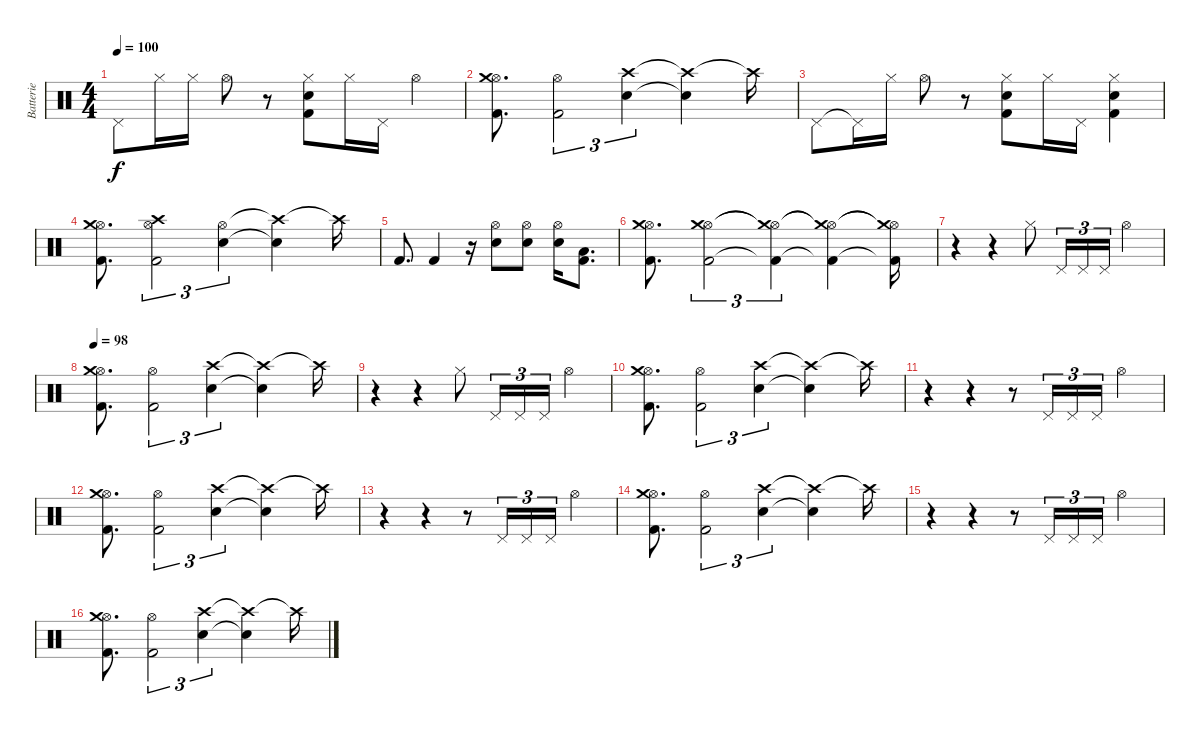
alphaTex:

\track ("Batterie" "Batterie") {instrument percussion}
\staff {score}
\articulation defaults
\ts (4 4)
\tempo 100
\clef neutral
\ks c "Pedal Hi-Hat (hit)".8{dy f} "Hi-Hat (closed)".16 "Hi-Hat (closed)".16 "Hi-Hat (open)".8
r.8 ("Hi-Hat (closed)" "Electric Snare (hit)" "Kick (hit) 2").8 "Hi-Hat (closed)".16 "Pedal Hi-Hat (hit)".16 "Hi-Hat (open)".4 |
("Hi-Hat (open)" "Crash medium (hit)" "Kick (hit) 2").8{d} ("Hi-Hat (open)" "Kick (hit) 2").2{tu (3 2)} ("Crash high (hit)" "Electric Snare (hit)").4{tu (3 2)} ("Crash high (hit)"{t} "Electric Snare (hit)"{t}).4 "Crash high (hit)"{t}.16 |
"Pedal Hi-Hat (hit)".8 "Pedal Hi-Hat (hit)"{t}.16 "Hi-Hat (closed)".16 "Hi-Hat (open)".8 r.8 ("Hi-Hat (closed)" "Electric Snare (hit)" "Kick (hit) 2").8 "Hi-Hat (closed)".16 "Pedal Hi-Hat (hit)".16 ("Hi-Hat (closed)" "Electric Snare (hit)" "Kick (hit) 2").4 |
("Hi-Hat (open)" "Crash medium (hit)" "Kick (hit) 2").8{d} ("Hi-Hat (open)" "Crash high (hit)" "Kick (hit) 2").2{tu (3 2)} ("Hi-Hat (open)" "Electric Snare (hit)").4{tu (3 2)} ("Crash high (hit)"{t} "Electric Snare (hit)"{t}).4 "Crash high (hit)"{t}.16 |
"Kick (hit) 2".8{d} "Kick (hit) 2".4 r.16 ("Hi-Hat (open)" "Electric Snare (hit)").8 ("Hi-Hat (open)" "Electric Snare (hit)").8 ("Hi-Hat (open)" "Electric Snare (hit)").16 ("Low Floor Tom (hit)" "Kick (hit) 2").8{d} |
("Hi-Hat (open)" "Crash medium (hit)" "Kick (hit) 2").8{d} ("Hi-Hat (open)" "Crash medium (hit)" "Kick (hit) 2").2{tu (3 2)} ("Hi-Hat (open)"{t} "Crash medium (hit)"{t} "Kick (hit) 2"{t}).4{tu (3 2)} ("Hi-Hat (open)"{t} "Crash medium (hit)"{t} "Kick (hit) 2"{t}).4 ("Hi-Hat (open)"{t} "Crash medium (hit)"{t} "Kick (hit) 2"{t}).16 |
r.4 r.4 "Hi-Hat (closed)".8 "Pedal Hi-Hat (hit)".16{tu (3 2)} "Pedal Hi-Hat (hit)".16{tu (3 2)} "Pedal Hi-Hat (hit)".16{tu (3 2)} "Hi-Hat (open)".4 |
\tempo 98
("Hi-Hat (open)" "Crash medium (hit)" "Kick (hit) 2").8{d} ("Hi-Hat (open)" "Kick (hit) 2").2{tu (3 2)} ("Crash high (hit)" "Electric Snare (hit)").4{tu (3 2)} ("Crash high (hit)"{t} "Electric Snare (hit)"{t}).4 "Crash high (hit)"{t}.16 |
r.4 r.4 "Hi-Hat (closed)".8 "Pedal Hi-Hat (hit)".16{tu (3 2)} "Pedal Hi-Hat (hit)".16{tu (3 2)} "Pedal Hi-Hat (hit)".16{tu (3 2)} "Hi-Hat (open)".4 |
("Hi-Hat (open)" "Crash medium (hit)" "Kick (hit) 2").8{d} ("Hi-Hat (open)" "Kick (hit) 2").2{tu (3 2)} ("Crash high (hit)" "Electric Snare (hit)").4{tu (3 2)} ("Crash high (hit)"{t} "Electric Snare (hit)"{t}).4 "Crash high (hit)"{t}.16 |
r.4 r.4 r.8 "Pedal Hi-Hat (hit)".16{tu (3 2)} "Pedal Hi-Hat (hit)".16{tu (3 2)} "Pedal Hi-Hat (hit)".16{tu (3 2)} "Hi-Hat (open)".4 |
("Hi-Hat (open)" "Crash medium (hit)" "Kick (hit) 2").8{d} ("Hi-Hat (open)" "Kick (hit) 2").2{tu (3 2)} ("Crash high (hit)" "Electric Snare (hit)").4{tu (3 2)} ("Crash high (hit)"{t} "Electric Snare (hit)"{t}).4 "Crash high (hit)"{t}.16 |
r.4 r.4 r.8 "Pedal Hi-Hat (hit)".16{tu (3 2)} "Pedal Hi-Hat (hit)".16{tu (3 2)} "Pedal Hi-Hat (hit)".16{tu (3 2)} "Hi-Hat (open)".4 |
("Hi-Hat (open)" "Crash medium (hit)" "Kick (hit) 2").8{d} ("Hi-Hat (open)" "Kick (hit) 2").2{tu (3 2)} ("Crash high (hit)" "Electric Snare (hit)").4{tu (3 2)} ("Crash high (hit)"{t} "Electric Snare (hit)"{t}).4 "Crash high (hit)"{t}.16 |
r.4 r.4 r.8 "Pedal Hi-Hat (hit)".16{tu (3 2)} "Pedal Hi-Hat (hit)".16{tu (3 2)} "Pedal Hi-Hat (hit)".16{tu (3 2)} "Hi-Hat (open)".4 |
("Hi-Hat (open)" "Crash medium (hit)" "Kick (hit) 2").8{d} ("Hi-Hat (open)" "Kick (hit) 2").2{tu (3 2)} ("Crash high (hit)" "Electric Snare (hit)").4{tu (3 2)} ("Crash high (hit)"{t} "Electric Snare (hit)"{t}).4 "Crash high (hit)"{t}.16
